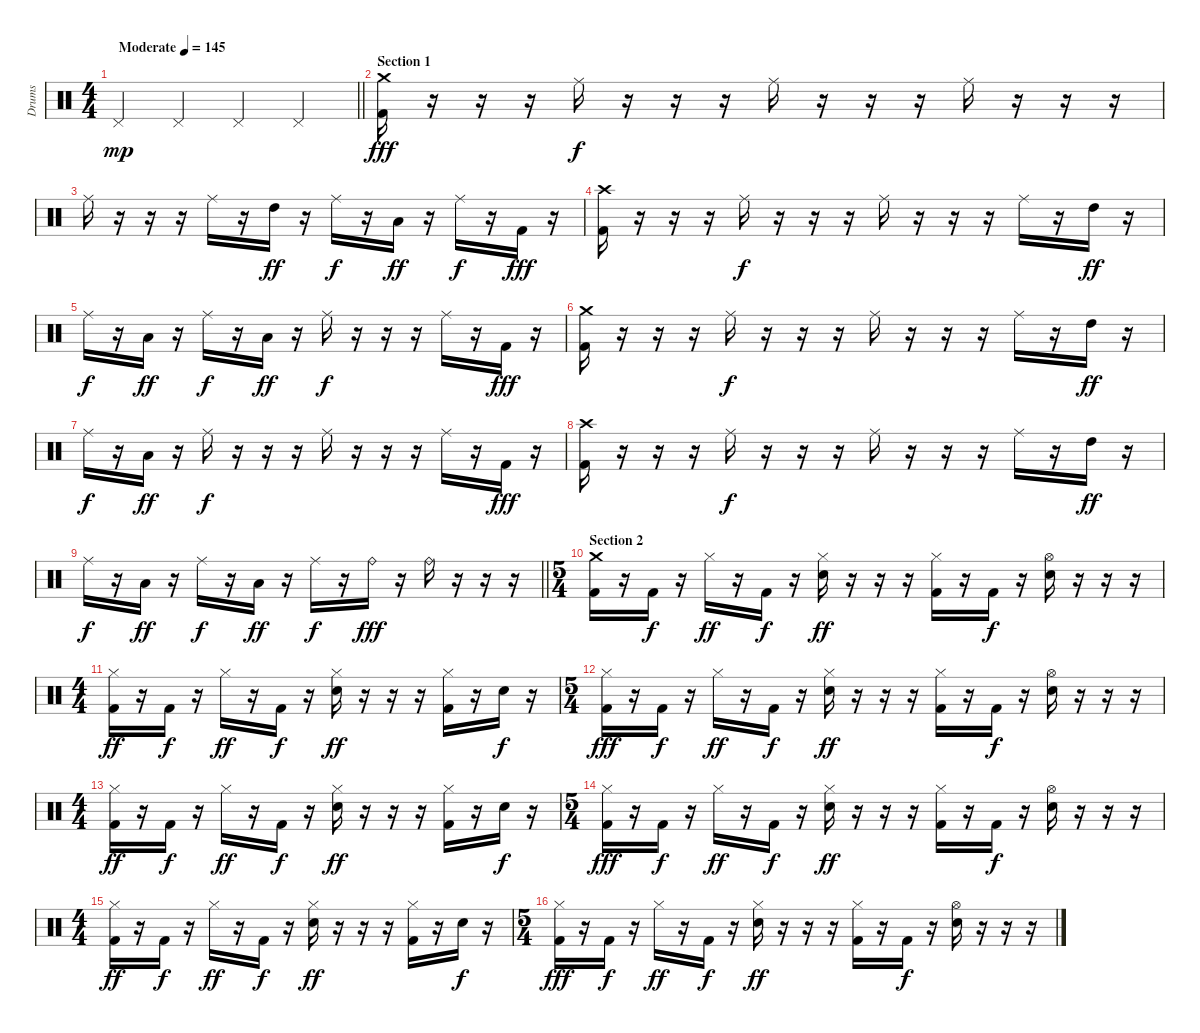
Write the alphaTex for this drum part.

\track ("Drums" "Drums") {instrument percussion}
\staff {score}
\articulation defaults
\ts (4 4)
\tempo (145 "Moderate")
\clef neutral
\barLineRight lightlight
\ks c "Pedal Hi-Hat (hit)".4{dy mp} "Pedal Hi-Hat (hit)".4 "Pedal Hi-Hat (hit)".4 "Pedal Hi-Hat (hit)".4
|
\section ("" "Section 1")
("Crash medium (hit)" "Kick (hit) 2").16{dy fff} r.16 r.16 r.16 "Ride (middle)".16{dy f} r.16 r.16 r.16 "Ride (middle)".16 r.16 r.16 r.16 "Ride (middle)".16 r.16 r.16 r.16 |
"Ride (middle)".16 r.16 r.16 r.16 "Ride (middle)".16 r.16 "High Tom (hit)".16{dy ff} r.16 "Ride (middle)".16{dy f} r.16 "Low Tom (hit)".16{dy ff} r.16 "Ride (middle)".16{dy f} r.16 "Kick (hit) 2".16{dy fff} r.16 |
("Crash high (hit)" "Kick (hit) 2").16 r.16 r.16 r.16 "Ride (middle)".16{dy f} r.16 r.16 r.16 "Ride (middle)".16 r.16 r.16 r.16 "Ride (middle)".16 r.16 "High Tom (hit)".16{dy ff} r.16 |
"Ride (middle)".16{dy f} r.16 "Low Tom (hit)".16{dy ff} r.16 "Ride (middle)".16{dy f} r.16 "Low Floor Tom (hit)".16{dy ff} r.16 "Ride (middle)".16{dy f} r.16 r.16 r.16 "Ride (middle)".16 r.16 "Kick (hit) 2".16{dy fff} r.16 |
("Crash medium (hit)" "Kick (hit) 2").16 r.16 r.16 r.16 "Ride (middle)".16{dy f} r.16 r.16 r.16 "Ride (middle)".16 r.16 r.16 r.16 "Ride (middle)".16 r.16 "High Tom (hit)".16{dy ff} r.16 |
"Ride (middle)".16{dy f} r.16 "Low Tom (hit)".16{dy ff} r.16 "Ride (middle)".16{dy f} r.16 r.16 r.16 "Ride (middle)".16 r.16 r.16 r.16 "Ride (middle)".16 r.16 "Kick (hit) 2".16{dy fff} r.16 |
("Crash high (hit)" "Kick (hit) 2").16 r.16 r.16 r.16 "Ride (middle)".16{dy f} r.16 r.16 r.16 "Ride (middle)".16 r.16 r.16 r.16 "Ride (middle)".16 r.16 "High Tom (hit)".16{dy ff} r.16 |
\barLineRight lightlight "Ride (middle)".16{dy f}
r.16 "Low Tom (hit)".16{dy ff} r.16 "Ride (middle)".16{dy f} r.16 "Low Floor Tom (hit)".16{dy ff} r.16 "Ride (middle)".16{dy f} r.16 "Ride (bell)".16{dy fff} r.16 "Ride (bell)".16 r.16 r.16 r.16 |
\ts (5 4)
\section ("" "Section 2")
("Crash medium (hit)" "Kick (hit) 2").16 r.16 "Kick (hit) 2".16{dy f} r.16 "Hi-Hat (closed)".16{dy ff} r.16 "Kick (hit) 2".16{dy f} r.16 ("Hi-Hat (closed)" "Electric Snare (hit)").16{dy ff} r.16 r.16 r.16 ("Hi-Hat (closed)" "Kick (hit) 2").16 r.16 "Kick (hit) 2".16{dy f} r.16 ("Hi-Hat (open)" "Electric Snare (hit)").16 r.16 r.16 r.16 |
\ts (4 4)
("Hi-Hat (closed)" "Kick (hit) 2").16{dy ff} r.16 "Kick (hit) 2".16{dy f} r.16 "Hi-Hat (closed)".16{dy ff} r.16 "Kick (hit) 2".16{dy f} r.16 ("Hi-Hat (closed)" "Electric Snare (hit)").16{dy ff} r.16 r.16 r.16 ("Hi-Hat (closed)" "Kick (hit) 2").16 r.16 "Electric Snare (hit)".16{dy f} r.16 |
\ts (5 4)
("Hi-Hat (closed)" "Kick (hit) 2").16{dy fff} r.16 "Kick (hit) 2".16{dy f} r.16 "Hi-Hat (closed)".16{dy ff} r.16 "Kick (hit) 2".16{dy f} r.16 ("Hi-Hat (closed)" "Electric Snare (hit)").16{dy ff} r.16 r.16 r.16 ("Hi-Hat (closed)" "Kick (hit) 2").16 r.16 "Kick (hit) 2".16{dy f} r.16 ("Hi-Hat (open)" "Electric Snare (hit)").16 r.16 r.16 r.16 |
\ts (4 4)
("Hi-Hat (closed)" "Kick (hit) 2").16{dy ff} r.16 "Kick (hit) 2".16{dy f} r.16 "Hi-Hat (closed)".16{dy ff} r.16 "Kick (hit) 2".16{dy f} r.16 ("Hi-Hat (closed)" "Electric Snare (hit)").16{dy ff} r.16 r.16 r.16 ("Hi-Hat (closed)" "Kick (hit) 2").16 r.16 "Electric Snare (hit)".16{dy f} r.16 |
\ts (5 4)
("Hi-Hat (closed)" "Kick (hit) 2").16{dy fff} r.16 "Kick (hit) 2".16{dy f} r.16 "Hi-Hat (closed)".16{dy ff} r.16 "Kick (hit) 2".16{dy f} r.16 ("Hi-Hat (closed)" "Electric Snare (hit)").16{dy ff} r.16 r.16 r.16 ("Hi-Hat (closed)" "Kick (hit) 2").16 r.16 "Kick (hit) 2".16{dy f} r.16 ("Hi-Hat (open)" "Electric Snare (hit)").16 r.16 r.16 r.16 |
\ts (4 4)
("Hi-Hat (closed)" "Kick (hit) 2").16{dy ff} r.16 "Kick (hit) 2".16{dy f} r.16 "Hi-Hat (closed)".16{dy ff} r.16 "Kick (hit) 2".16{dy f} r.16 ("Hi-Hat (closed)" "Electric Snare (hit)").16{dy ff} r.16 r.16 r.16 ("Hi-Hat (closed)" "Kick (hit) 2").16 r.16 "Electric Snare (hit)".16{dy f} r.16 |
\ts (5 4)
("Hi-Hat (closed)" "Kick (hit) 2").16{dy fff} r.16 "Kick (hit) 2".16{dy f} r.16 "Hi-Hat (closed)".16{dy ff} r.16 "Kick (hit) 2".16{dy f} r.16 ("Hi-Hat (closed)" "Electric Snare (hit)").16{dy ff} r.16 r.16 r.16 ("Hi-Hat (closed)" "Kick (hit) 2").16 r.16 "Kick (hit) 2".16{dy f} r.16 ("Hi-Hat (open)" "Electric Snare (hit)").16 r.16 r.16 r.16
